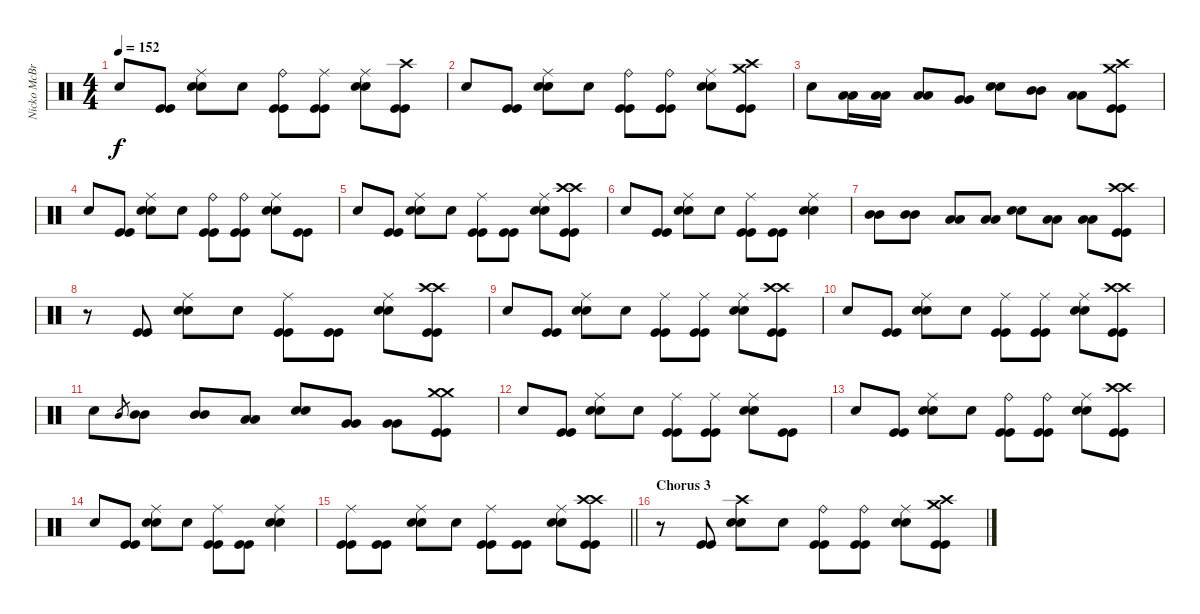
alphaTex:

\track ("Nicko McBrain" "Nicko McBr") {instrument percussion}
\staff {score}
\articulation defaults
\ts (4 4)
\tempo 152
\clef neutral
\ks c "Snare (hit)".8{dy f}
("Kick (hit)" "Kick (hit)").8 ("Ride (middle)" "Electric Snare (hit)" "Electric Snare (hit)").8 "Snare (hit)".8 ("Ride (bell)" "Kick (hit)" "Kick (hit)").8 ("Ride (middle)" "Kick (hit)" "Kick (hit)").8 ("Ride (middle)" "Electric Snare (hit)" "Electric Snare (hit)").8 ("Crash high (hit)" "Kick (hit)" "Kick (hit)").8 |
"Snare (hit)".8 ("Kick (hit)" "Kick (hit)").8 ("Ride (middle)" "Electric Snare (hit)" "Electric Snare (hit)").8 "Snare (hit)".8 ("Ride (bell)" "Kick (hit)" "Kick (hit)").8 ("Ride (bell)" "Kick (hit)" "Kick (hit)").8 ("Ride (middle)" "Electric Snare (hit)" "Electric Snare (hit)").8 ("Crash high (hit)" "Crash medium (hit)" "Kick (hit)" "Kick (hit)").8 |
"Snare (hit)".8 ("Low Tom (hit)" "Low Tom (hit)").16 ("Low Tom (hit)" "Low Tom (hit)").16 ("Low Tom (hit)" "Low Tom (hit)").8 ("Very Low Tom (hit)" "Very Low Tom (hit)").8 ("Electric Snare (hit)" "Electric Snare (hit)").8 ("Mid Tom (hit)" "Mid Tom (hit)").8 ("Low Tom (hit)" "Low Tom (hit)").8 ("Crash high (hit)" "Crash medium (hit)" "Kick (hit)" "Kick (hit)").8 |
"Snare (hit)".8 ("Kick (hit)" "Kick (hit)").8 ("Ride (middle)" "Electric Snare (hit)" "Electric Snare (hit)").8 "Snare (hit)".8 ("Ride (bell)" "Kick (hit)" "Kick (hit)").8 ("Ride (bell)" "Kick (hit)" "Kick (hit)").8 ("Ride (middle)" "Electric Snare (hit)" "Electric Snare (hit)").8 ("Kick (hit)" "Kick (hit)").8 |
"Snare (hit)".8 ("Kick (hit)" "Kick (hit)").8 ("Ride (middle)" "Electric Snare (hit)" "Electric Snare (hit)").8 "Snare (hit)".8 ("Ride (middle)" "Kick (hit)" "Kick (hit)").8 ("Kick (hit)" "Kick (hit)").8 ("Ride (middle)" "Electric Snare (hit)" "Electric Snare (hit)").8 ("Crash high (hit)" "Crash high (hit)" "Kick (hit)" "Kick (hit)").8 |
"Snare (hit)".8 ("Kick (hit)" "Kick (hit)").8 ("Ride (middle)" "Electric Snare (hit)" "Electric Snare (hit)").8 "Snare (hit)".8 ("Ride (middle)" "Kick (hit)" "Kick (hit)").8 ("Kick (hit)" "Kick (hit)").8 ("Ride (middle)" "Electric Snare (hit)" "Electric Snare (hit)").4 |
("Mid Tom (hit)" "Mid Tom (hit)").8 ("Mid Tom (hit)" "Mid Tom (hit)").8 ("Low Tom (hit)" "Low Tom (hit)").8 ("Low Tom (hit)" "Low Tom (hit)").8 ("Electric Snare (hit)" "Electric Snare (hit)").8 ("Low Floor Tom (hit)" "Low Floor Tom (hit)").8 ("Low Floor Tom (hit)" "Low Floor Tom (hit)").8 ("Crash high (hit)" "Crash high (hit)" "Kick (hit)" "Kick (hit)").8 |
r.8 ("Kick (hit)" "Kick (hit)").8 ("Ride (middle)" "Electric Snare (hit)" "Electric Snare (hit)").8 "Snare (hit)".8 ("Ride (middle)" "Kick (hit)" "Kick (hit)").8 ("Kick (hit)" "Kick (hit)").8 ("Ride (middle)" "Electric Snare (hit)" "Electric Snare (hit)").8 ("Crash high (hit)" "Crash high (hit)" "Kick (hit)" "Kick (hit)").8 |
"Snare (hit)".8 ("Kick (hit)" "Kick (hit)").8 ("Ride (middle)" "Electric Snare (hit)" "Electric Snare (hit)").8 "Snare (hit)".8 ("Ride (middle)" "Kick (hit)" "Kick (hit)").8 ("Ride (middle)" "Kick (hit)" "Kick (hit)").8 ("Ride (middle)" "Electric Snare (hit)" "Electric Snare (hit)").8 ("Crash high (hit)" "Crash high (hit)" "Kick (hit)" "Kick (hit)").8 |
"Snare (hit)".8 ("Kick (hit)" "Kick (hit)").8 ("Ride (middle)" "Electric Snare (hit)" "Electric Snare (hit)").8 "Snare (hit)".8 ("Ride (middle)" "Kick (hit)" "Kick (hit)").8 ("Ride (middle)" "Kick (hit)" "Kick (hit)").8 ("Ride (middle)" "Electric Snare (hit)" "Electric Snare (hit)").8 ("Crash high (hit)" "Crash high (hit)" "Kick (hit)" "Kick (hit)").8 |
"Snare (hit)".8 "Mid Tom (hit)".8{gr} ("Mid Tom (hit)" "Mid Tom (hit)").8 ("Mid Tom (hit)" "Mid Tom (hit)").8 ("Low Tom (hit)" "Low Tom (hit)").8 ("Electric Snare (hit)" "Electric Snare (hit)").8 ("Very Low Tom (hit)" "Very Low Tom (hit)").8 ("Very Low Tom (hit)" "Very Low Tom (hit)").8 ("Crash medium (hit)" "Crash medium (hit)" "Kick (hit)" "Kick (hit)").8 |
"Snare (hit)".8 ("Kick (hit)" "Kick (hit)").8 ("Ride (middle)" "Electric Snare (hit)" "Electric Snare (hit)").8 "Snare (hit)".8 ("Ride (middle)" "Kick (hit)" "Kick (hit)").8 ("Ride (middle)" "Kick (hit)" "Kick (hit)").8 ("Ride (middle)" "Electric Snare (hit)" "Electric Snare (hit)").8 ("Kick (hit)" "Kick (hit)").8 |
"Snare (hit)".8 ("Kick (hit)" "Kick (hit)").8 ("Ride (middle)" "Electric Snare (hit)" "Electric Snare (hit)").8 "Snare (hit)".8 ("Ride (bell)" "Kick (hit)" "Kick (hit)").8 ("Ride (bell)" "Kick (hit)" "Kick (hit)").8 ("Ride (middle)" "Electric Snare (hit)" "Electric Snare (hit)").8 ("Crash high (hit)" "Crash high (hit)" "Kick (hit)" "Kick (hit)").8 |
"Snare (hit)".8 ("Kick (hit)" "Kick (hit)").8 ("Ride (middle)" "Electric Snare (hit)" "Electric Snare (hit)").8 "Snare (hit)".8 ("Ride (middle)" "Kick (hit)" "Kick (hit)").8 ("Kick (hit)" "Kick (hit)").8 ("Ride (middle)" "Electric Snare (hit)" "Electric Snare (hit)").4 |
\barLineRight lightlight
("Ride (middle)" "Kick (hit)" "Kick (hit)").8 ("Kick (hit)" "Kick (hit)").8 ("Ride (middle)" "Electric Snare (hit)" "Electric Snare (hit)").8 "Snare (hit)".8 ("Ride (middle)" "Kick (hit)" "Kick (hit)").8 ("Kick (hit)" "Kick (hit)").8 ("Ride (middle)" "Electric Snare (hit)" "Electric Snare (hit)").8 ("Crash high (hit)" "Crash high (hit)" "Kick (hit)" "Kick (hit)").8 |
\section ("" "Chorus 3")
r.8 ("Kick (hit)" "Kick (hit)").8 ("Crash high (hit)" "Electric Snare (hit)" "Electric Snare (hit)").8 "Snare (hit)".8 ("Ride (bell)" "Kick (hit)" "Kick (hit)").8 ("Ride (bell)" "Kick (hit)" "Kick (hit)").8 ("Ride (middle)" "Electric Snare (hit)" "Electric Snare (hit)").8 ("Crash high (hit)" "Crash medium (hit)" "Kick (hit)" "Kick (hit)").8
